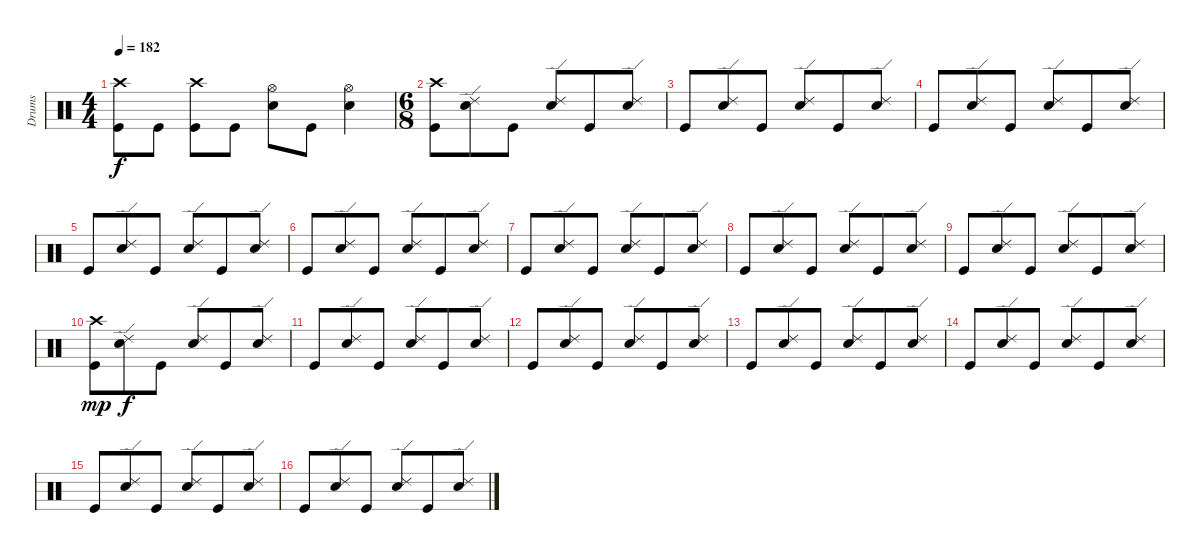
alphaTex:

\track ("Drums" "Drums") {instrument percussion}
\staff {score}
\articulation defaults
\ts (4 4)
\tempo 182
\clef neutral
\ks c
("Crash high (hit)" "Kick (hit)").8{dy f} "Kick (hit)".8 ("Crash high (hit)" "Kick (hit)").8 "Kick (hit)".8 ("Hi-Hat (open)" "Electric Snare (hit)").8 "Kick (hit)".8 ("Hi-Hat (open)" "Electric Snare (hit)").4 |
\ts (6 8)
("Crash high (hit)" "Kick (hit)").8 ("Ride (edge) 2" "Electric Snare (hit)").8 "Kick (hit)".8 ("Ride (edge) 2" "Electric Snare (hit)").8 "Kick (hit)".8 ("Ride (edge) 2" "Electric Snare (hit)").8 |
"Kick (hit)".8 ("Ride (edge) 2" "Electric Snare (hit)").8 "Kick (hit)".8 ("Ride (edge) 2" "Electric Snare (hit)").8 "Kick (hit)".8 ("Ride (edge) 2" "Electric Snare (hit)").8 |
"Kick (hit)".8 ("Ride (edge) 2" "Electric Snare (hit)").8 "Kick (hit)".8 ("Ride (edge) 2" "Electric Snare (hit)").8 "Kick (hit)".8 ("Ride (edge) 2" "Electric Snare (hit)").8 |
"Kick (hit)".8 ("Ride (edge) 2" "Electric Snare (hit)").8 "Kick (hit)".8 ("Ride (edge) 2" "Electric Snare (hit)").8 "Kick (hit)".8 ("Ride (edge) 2" "Electric Snare (hit)").8 |
"Kick (hit)".8 ("Ride (edge) 2" "Electric Snare (hit)").8 "Kick (hit)".8 ("Ride (edge) 2" "Electric Snare (hit)").8 "Kick (hit)".8 ("Ride (edge) 2" "Electric Snare (hit)").8 |
"Kick (hit)".8 ("Ride (edge) 2" "Electric Snare (hit)").8 "Kick (hit)".8 ("Ride (edge) 2" "Electric Snare (hit)").8 "Kick (hit)".8 ("Ride (edge) 2" "Electric Snare (hit)").8 |
"Kick (hit)".8 ("Ride (edge) 2" "Electric Snare (hit)").8 "Kick (hit)".8 ("Ride (edge) 2" "Electric Snare (hit)").8 "Kick (hit)".8 ("Ride (edge) 2" "Electric Snare (hit)").8 |
"Kick (hit)".8 ("Ride (edge) 2" "Electric Snare (hit)").8 "Kick (hit)".8 ("Ride (edge) 2" "Electric Snare (hit)").8 "Kick (hit)".8 ("Ride (edge) 2" "Electric Snare (hit)").8 |
("Crash high (hit)" "Kick (hit)").8{dy mp} ("Ride (edge) 2" "Electric Snare (hit)").8{dy f} "Kick (hit)".8 ("Ride (edge) 2" "Electric Snare (hit)").8 "Kick (hit)".8 ("Ride (edge) 2" "Electric Snare (hit)").8 |
"Kick (hit)".8 ("Ride (edge) 2" "Electric Snare (hit)").8 "Kick (hit)".8 ("Ride (edge) 2" "Electric Snare (hit)").8 "Kick (hit)".8 ("Ride (edge) 2" "Electric Snare (hit)").8 |
"Kick (hit)".8 ("Ride (edge) 2" "Electric Snare (hit)").8 "Kick (hit)".8 ("Ride (edge) 2" "Electric Snare (hit)").8 "Kick (hit)".8 ("Ride (edge) 2" "Electric Snare (hit)").8 |
"Kick (hit)".8 ("Ride (edge) 2" "Electric Snare (hit)").8 "Kick (hit)".8 ("Ride (edge) 2" "Electric Snare (hit)").8 "Kick (hit)".8 ("Ride (edge) 2" "Electric Snare (hit)").8 |
"Kick (hit)".8 ("Ride (edge) 2" "Electric Snare (hit)").8 "Kick (hit)".8 ("Ride (edge) 2" "Electric Snare (hit)").8 "Kick (hit)".8 ("Ride (edge) 2" "Electric Snare (hit)").8 |
"Kick (hit)".8 ("Ride (edge) 2" "Electric Snare (hit)").8 "Kick (hit)".8 ("Ride (edge) 2" "Electric Snare (hit)").8 "Kick (hit)".8 ("Ride (edge) 2" "Electric Snare (hit)").8 |
"Kick (hit)".8 ("Ride (edge) 2" "Electric Snare (hit)").8 "Kick (hit)".8 ("Ride (edge) 2" "Electric Snare (hit)").8 "Kick (hit)".8 ("Ride (edge) 2" "Electric Snare (hit)").8
